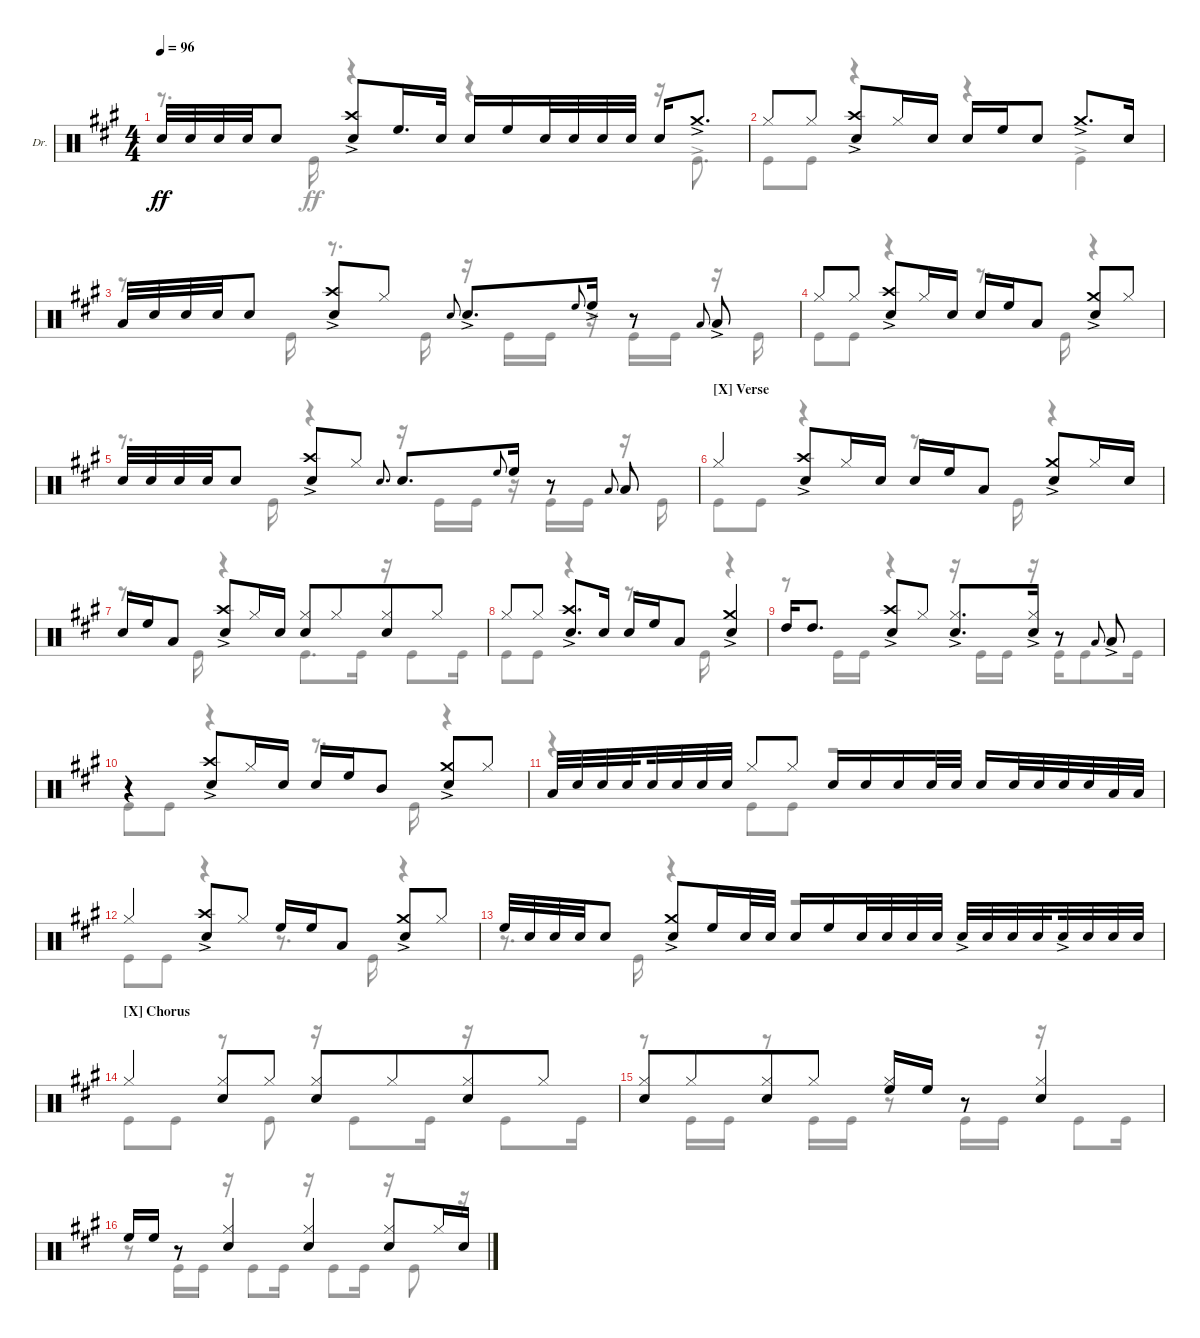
\defaultSystemsLayout 4
\bracketExtendMode groupsimilarinstruments
\firstSystemTrackNameOrientation horizontal
\otherSystemsTrackNameOrientation horizontal
\track ("Drums" "Dr.") {instrument percussion}
\staff {score}
\articulation defaults
\voice
\ts (4 4)
\tempo 96
\clef neutral
\ks a "Snare (hit) 2".32{dy ff} "Snare (hit) 2".32 "Snare (hit) 2".32 "Snare (hit) 2".32 "Snare (hit) 2".8
("Snare (hit) 2"{ac} "Crash high (hit)"{ac}).8 "High Floor Tom (hit)".16{d} "Snare (hit) 2".32 "Snare (hit) 2".16 "High Floor Tom (hit)".16 "Snare (hit) 2".32 "Snare (hit) 2".32 "Snare (hit) 2".32 "Snare (hit) 2".32 "Snare (hit) 2".16 "Crash medium (hit)"{ac}.8{d} |
"Hi-Hat (closed)".8 "Hi-Hat (closed)".8 ("Crash high (hit)"{ac} "Snare (hit) 2"{ac}).8 "Hi-Hat (closed)".16 "Snare (hit) 2".16 "Snare (hit) 2".16 "High Floor Tom (hit)".16 "Snare (hit) 2".8 "Crash medium (hit)"{ac}.8{d} "Snare (hit) 2".16 |
"Low Tom (hit)".32 "Snare (hit) 2".32 "Snare (hit) 2".32 "Snare (hit) 2".32 "Snare (hit) 2".8 ("Snare (hit) 2"{ac} "Crash high (hit)"{ac}).8 "Hi-Hat (closed)".8 "Snare (hit) 2".8{gr onbeat} "Snare (hit) 2"{ac}.8{d} "High Floor Tom (hit)".8{gr onbeat} "High Floor Tom (hit)"{ac}.16 r.8 "Low Tom (hit)".8{gr onbeat} "Low Tom (hit)"{ac}.8 |
"Hi-Hat (closed)".8 "Hi-Hat (closed)".8 ("Crash high (hit)"{ac} "Snare (hit) 2"{ac}).8 "Hi-Hat (closed)".16 "Snare (hit) 2".16 "Snare (hit) 2".16 "High Floor Tom (hit)".16 "Low Tom (hit)".8 ("Snare (hit) 2"{ac} "Crash medium (hit)"{ac}).8 "Hi-Hat (closed)".8 |
"Snare (hit) 2".32 "Snare (hit) 2".32 "Snare (hit) 2".32 "Snare (hit) 2".32 "Snare (hit) 2".8 ("Snare (hit) 2"{ac} "Crash high (hit)"{ac}).8 "Hi-Hat (closed)".8 "Snare (hit) 2".8{d gr onbeat} "Snare (hit) 2".8{d} "High Floor Tom (hit)".8{gr onbeat} "High Floor Tom (hit)".16 r.8 "Low Tom (hit)".8{gr onbeat} "Low Tom (hit)".8 |
\section ("X" "Verse")
"Hi-Hat (closed)".4 ("Crash high (hit)"{ac} "Snare (hit) 2"{ac}).8 "Hi-Hat (closed)".16 "Snare (hit) 2".16 "Snare (hit) 2".16 "High Floor Tom (hit)".16 "Low Tom (hit)".8 ("Snare (hit) 2"{ac} "Crash medium (hit)"{ac}).8 "Hi-Hat (closed)".16 "Snare (hit) 2".16 |
"Snare (hit) 2".16 "High Floor Tom (hit)".16 "Low Tom (hit)".8 ("Snare (hit) 2"{ac} "Crash high (hit)"{ac}).8 "Hi-Hat (closed)".16 "Snare (hit) 2".16 ("Snare (hit) 2" "Hi-Hat (closed)").8 "Hi-Hat (closed)".8{beam merge} ("Hi-Hat (closed)" "Snare (hit) 2").8{beam merge} "Hi-Hat (closed)".8{beam merge} |
"Hi-Hat (closed)".8 "Hi-Hat (closed)".8 ("Crash high (hit)"{ac} "Snare (hit) 2"{ac}).8{d} "Snare (hit) 2".16 "Snare (hit) 2".16 "High Floor Tom (hit)".16 "Low Tom (hit)".8 ("Snare (hit) 2"{ac} "Crash medium (hit)"{ac}).4 |
"High Tom (hit)".16 "High Tom (hit)".8{d} ("Snare (hit) 2"{ac} "Crash high (hit)"{ac}).8 "Hi-Hat (closed)".8 ("Hi-Hat (closed)"{ac} "Snare (hit) 2"{ac}).8{d} ("Hi-Hat (closed)"{ac} "Snare (hit) 2"{ac}).16 r.8 "Low Tom (hit)".8{gr onbeat} "Low Tom (hit)"{ac}.8 |
r.4 ("Snare (hit) 2"{ac} "Crash high (hit)"{ac}).8 "Hi-Hat (closed)".16 "Snare (hit) 2".16 "Snare (hit) 2".16 "High Floor Tom (hit)".16 "Mid Tom (hit)".8 ("Snare (hit) 2"{ac} "Crash medium (hit)"{ac}).8 "Hi-Hat (closed)".8 |
"Low Tom (hit)".32 "Snare (hit) 2".32 "Snare (hit) 2".32 "Snare (hit) 2".32{beam splitsecondary} "Snare (hit) 2".32 "Snare (hit) 2".32 "Snare (hit) 2".32 "Snare (hit) 2".32 "Hi-Hat (closed)".8 "Hi-Hat (closed)".8 "Snare (hit) 2".16 "Snare (hit) 2".16 "Snare (hit) 2".16 "Snare (hit) 2".32 "Snare (hit) 2".32 "Snare (hit) 2".16 "Snare (hit) 2".32 "Snare (hit) 2".32 "Snare (hit) 2".32{beam merge} "Snare (hit) 2".32{beam merge} "Low Tom (hit)".32{beam merge} "Low Tom (hit)".32 |
"Hi-Hat (closed)".4 ("Crash high (hit)"{ac} "Snare (hit) 2"{ac}).8 "Hi-Hat (closed)".8 "High Floor Tom (hit)".16 "High Floor Tom (hit)".16 "Low Tom (hit)".8 ("Snare (hit) 2"{ac} "Crash medium (hit)"{ac}).8 "Hi-Hat (closed)".8 |
"High Floor Tom (hit)".32 "Snare (hit) 2".32 "Snare (hit) 2".32 "Snare (hit) 2".32 "Snare (hit) 2".8 ("Snare (hit) 2"{ac} "Crash medium (hit)"{ac}).8 "High Floor Tom (hit)".16 "Snare (hit) 2".32 "Snare (hit) 2".32 "Snare (hit) 2".16 "High Floor Tom (hit)".16 "Snare (hit) 2".32 "Snare (hit) 2".32 "Snare (hit) 2".32 "Snare (hit) 2".32 "Snare (hit) 2"{ac}.32 "Snare (hit) 2".32 "Snare (hit) 2".32 "Snare (hit) 2".32{beam splitsecondary} "Snare (hit) 2"{ac}.32 "Snare (hit) 2".32 "Snare (hit) 2".32 "Snare (hit) 2".32 |
\section ("X" "Chorus")
"Hi-Hat (closed)".4 ("Hi-Hat (closed)" "Snare (hit) 2").8 "Hi-Hat (closed)".8 ("Hi-Hat (closed)" "Snare (hit) 2").8 "Hi-Hat (closed)".8{beam merge} ("Hi-Hat (closed)" "Snare (hit) 2").8{beam merge} "Hi-Hat (closed)".8{beam merge} |
("Snare (hit) 2" "Hi-Hat (closed)").8 "Hi-Hat (closed)".8{beam merge} ("Snare (hit) 2" "Hi-Hat (closed)").8{beam merge} "Hi-Hat (closed)".8{beam split} ("Hi-Hat (closed)" "High Floor Tom (hit)").16{beam merge} "High Floor Tom (hit)".16{beam split} r.8{beam split} ("Snare (hit) 2" "Hi-Hat (closed)").4{beam split} |
"High Floor Tom (hit)".16 "High Floor Tom (hit)".16 r.8 ("Hi-Hat (closed)" "Snare (hit) 2").4 ("Hi-Hat (closed)" "Snare (hit) 2").4 ("Hi-Hat (closed)" "Snare (hit) 2").8 "Hi-Hat (closed)".16 "Snare (hit) 2".16
\voice
\clef neutral
\ottava regular
\simile none
\ks a
r.8{d dy ff} "Kick (hit)".16 r.4 r.4 r.16 "Kick (hit)"{ac}.8{d} |
"Kick (hit)".8 "Kick (hit)".8 r.4 r.4 "Kick (hit)"{ac}.4 |
r.8{d} "Kick (hit)".16 r.8{d} "Kick (hit)".16 r.16 "Kick (hit)".16 "Kick (hit)".16 r.16 "Kick (hit)".16 "Kick (hit)".16{beam split} r.16{beam split} "Kick (hit)".16{beam split} |
"Kick (hit)".8 "Kick (hit)".8 r.4 r.8{d} "Kick (hit)".16 r.4 |
r.8{d} "Kick (hit)".16 r.4 r.16 "Kick (hit)".16 "Kick (hit)".16 r.16 "Kick (hit)".16 "Kick (hit)".16{beam split} r.16{beam split} "Kick (hit)".16{beam split} |
"Kick (hit)".8 "Kick (hit)".8 r.4 r.8{d} "Kick (hit)".16 r.4 |
r.8{d} "Kick (hit)".16 r.4 "Kick (hit)".8{d} "Kick (hit)".16 r.16 "Kick (hit)".8 "Kick (hit)".16 |
"Kick (hit)".8 "Kick (hit)".8 r.4 r.8{d} "Kick (hit)".16 r.4 |
r.8 "Kick (hit)".16 "Kick (hit)".16 r.4 r.16 "Kick (hit)".16 "Kick (hit)".16 r.16 "Kick (hit)".16 "Kick (hit)".8 "Kick (hit)".16 |
"Kick (hit)".8 "Kick (hit)".8 r.4 r.8{d} "Kick (hit)".16 r.4 |
r.4 "Kick (hit)".8 "Kick (hit)".8 r.2 |
"Kick (hit)".8 "Kick (hit)".8 r.4 r.8{d} "Kick (hit)".16 r.4 |
r.8{d} "Kick (hit)".16 r.4 r.2 |
"Kick (hit)".8 "Kick (hit)".8 r.8 "Kick (hit)".8 r.16 "Kick (hit)".8 "Kick (hit)".16 r.16 "Kick (hit)".8 "Kick (hit)".16 |
r.8 "Kick (hit)".16 "Kick (hit)".16 r.8 "Kick (hit)".16 "Kick (hit)".16 r.8 "Kick (hit)".16 "Kick (hit)".16 r.16 "Kick (hit)".8 "Kick (hit)".16 |
r.8 "Kick (hit)".16 "Kick (hit)".16 r.16 "Kick (hit)".8 "Kick (hit)".16 r.16 "Kick (hit)".8 "Kick (hit)".16 r.16 "Kick (hit)".8 r.16
